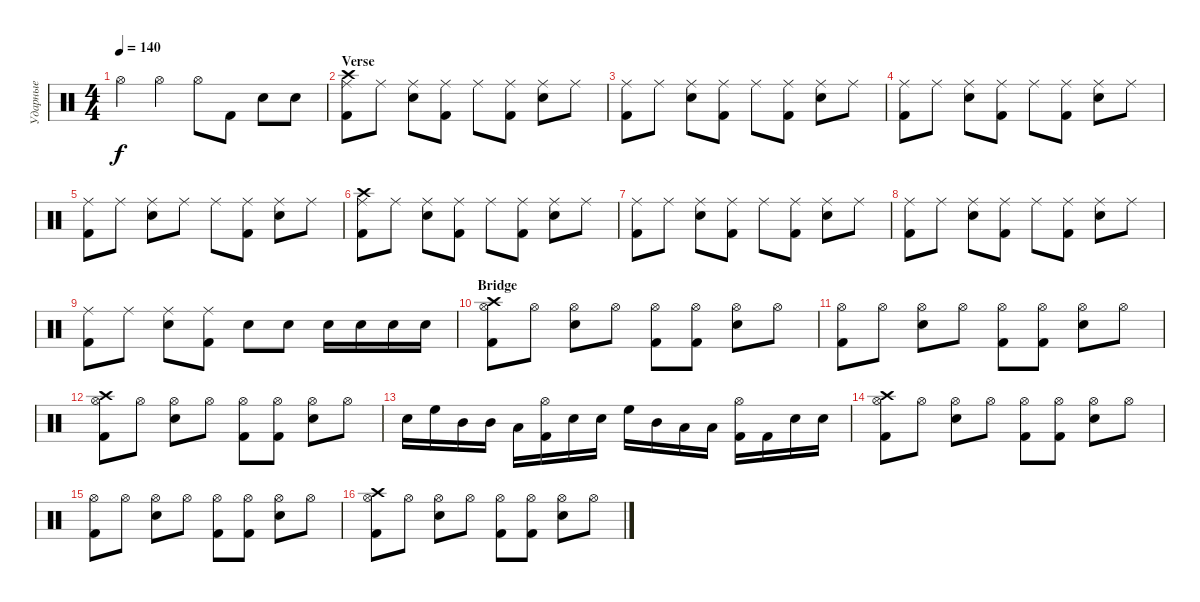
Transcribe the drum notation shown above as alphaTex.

\track ("Ударные" "Ударные") {instrument percussion}
\staff {score}
\articulation defaults
\ts (4 4)
\tempo 140
\clef neutral
\ks c "Hi-Hat (open)".4{dy f} "Hi-Hat (open)".4 "Hi-Hat (open)".8 "Kick (hit) 2".8 "Snare (hit) 2".8 "Snare (hit) 2".8
|
\section ("" "Verse")
("Ride (middle)" "Crash high (hit)" "Kick (hit) 2").8 "Ride (middle)".8 ("Ride (middle)" "Snare (hit) 2").8 ("Ride (middle)" "Kick (hit) 2").8 "Ride (middle)".8 ("Ride (middle)" "Kick (hit) 2").8 ("Ride (middle)" "Snare (hit) 2").8 "Ride (middle)".8 |
("Ride (middle)" "Kick (hit) 2").8 "Ride (middle)".8 ("Ride (middle)" "Snare (hit) 2").8 ("Ride (middle)" "Kick (hit) 2").8 "Ride (middle)".8 ("Ride (middle)" "Kick (hit) 2").8 ("Ride (middle)" "Snare (hit) 2").8 "Ride (middle)".8 |
("Ride (middle)" "Kick (hit) 2").8 "Ride (middle)".8 ("Ride (middle)" "Snare (hit) 2").8 ("Ride (middle)" "Kick (hit) 2").8 "Ride (middle)".8 ("Ride (middle)" "Kick (hit) 2").8 ("Ride (middle)" "Snare (hit) 2").8 "Ride (middle)".8 |
("Ride (middle)" "Kick (hit) 2").8 "Ride (middle)".8 ("Ride (middle)" "Snare (hit) 2").8 "Ride (middle)".8 "Ride (middle)".8 ("Ride (middle)" "Kick (hit) 2").8 ("Ride (middle)" "Snare (hit) 2").8 "Ride (middle)".8 |
("Ride (middle)" "Crash high (hit)" "Kick (hit) 2").8 "Ride (middle)".8 ("Ride (middle)" "Snare (hit) 2").8 ("Ride (middle)" "Kick (hit) 2").8 "Ride (middle)".8 ("Ride (middle)" "Kick (hit) 2").8 ("Ride (middle)" "Snare (hit) 2").8 "Ride (middle)".8 |
("Ride (middle)" "Kick (hit) 2").8 "Ride (middle)".8 ("Ride (middle)" "Snare (hit) 2").8 ("Ride (middle)" "Kick (hit) 2").8 "Ride (middle)".8 ("Ride (middle)" "Kick (hit) 2").8 ("Ride (middle)" "Snare (hit) 2").8 "Ride (middle)".8 |
("Ride (middle)" "Kick (hit) 2").8 "Ride (middle)".8 ("Ride (middle)" "Snare (hit) 2").8 ("Ride (middle)" "Kick (hit) 2").8 "Ride (middle)".8 ("Ride (middle)" "Kick (hit) 2").8 ("Ride (middle)" "Snare (hit) 2").8 "Ride (middle)".8 |
("Ride (middle)" "Kick (hit) 2").8 "Ride (middle)".8 ("Ride (middle)" "Snare (hit) 2").8 ("Ride (middle)" "Kick (hit) 2").8 "Snare (hit) 2".8 "Snare (hit) 2".8 "Snare (hit) 2".16 "Snare (hit) 2".16 "Snare (hit) 2".16 "Snare (hit) 2".16 |
\section ("" "Bridge")
("Hi-Hat (open)" "Crash high (hit)" "Kick (hit) 2").8 "Hi-Hat (open)".8 ("Hi-Hat (open)" "Snare (hit) 2").8 "Hi-Hat (open)".8 ("Hi-Hat (open)" "Kick (hit) 2").8 ("Hi-Hat (open)" "Kick (hit) 2").8 ("Hi-Hat (open)" "Snare (hit) 2").8 "Hi-Hat (open)".8 |
("Hi-Hat (open)" "Kick (hit) 2").8 "Hi-Hat (open)".8 ("Hi-Hat (open)" "Snare (hit) 2").8 "Hi-Hat (open)".8 ("Hi-Hat (open)" "Kick (hit) 2").8 ("Hi-Hat (open)" "Kick (hit) 2").8 ("Hi-Hat (open)" "Snare (hit) 2").8 "Hi-Hat (open)".8 |
("Hi-Hat (open)" "Crash high (hit)" "Kick (hit) 2").8 "Hi-Hat (open)".8 ("Hi-Hat (open)" "Snare (hit) 2").8 "Hi-Hat (open)".8 ("Hi-Hat (open)" "Kick (hit) 2").8 ("Hi-Hat (open)" "Kick (hit) 2").8 ("Hi-Hat (open)" "Snare (hit) 2").8 "Hi-Hat (open)".8 |
"Snare (hit) 2".16 "High Floor Tom (hit)".16 "Mid Tom (hit)".16 "Mid Tom (hit)".16 "Low Tom (hit)".16 ("Hi-Hat (open)" "Kick (hit) 2").16 "Snare (hit) 2".16 "Snare (hit) 2".16 "High Floor Tom (hit)".16 "Mid Tom (hit)".16 "Low Tom (hit)".16 "Low Floor Tom (hit)".16 ("Hi-Hat (open)" "Kick (hit) 2").16 "Kick (hit) 2".16 "Snare (hit) 2".16 "Snare (hit) 2".16 |
("Hi-Hat (open)" "Crash high (hit)" "Kick (hit) 2").8 "Hi-Hat (open)".8 ("Hi-Hat (open)" "Snare (hit) 2").8 "Hi-Hat (open)".8 ("Hi-Hat (open)" "Kick (hit) 2").8 ("Hi-Hat (open)" "Kick (hit) 2").8 ("Hi-Hat (open)" "Snare (hit) 2").8 "Hi-Hat (open)".8 |
("Hi-Hat (open)" "Kick (hit) 2").8 "Hi-Hat (open)".8 ("Hi-Hat (open)" "Snare (hit) 2").8 "Hi-Hat (open)".8 ("Hi-Hat (open)" "Kick (hit) 2").8 ("Hi-Hat (open)" "Kick (hit) 2").8 ("Hi-Hat (open)" "Snare (hit) 2").8 "Hi-Hat (open)".8 |
("Hi-Hat (open)" "Crash high (hit)" "Kick (hit) 2").8 "Hi-Hat (open)".8 ("Hi-Hat (open)" "Snare (hit) 2").8 "Hi-Hat (open)".8 ("Hi-Hat (open)" "Kick (hit) 2").8 ("Hi-Hat (open)" "Kick (hit) 2").8 ("Hi-Hat (open)" "Snare (hit) 2").8 "Hi-Hat (open)".8
